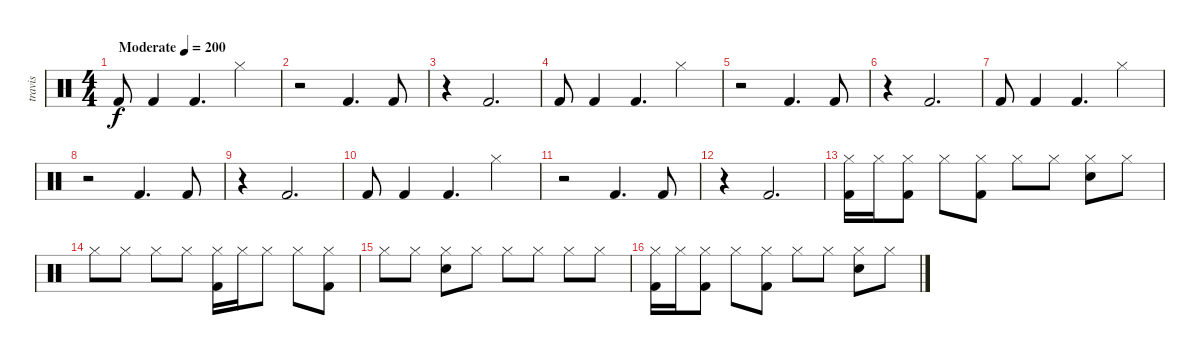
\track ("travis" "travis") {instrument percussion}
\staff {score}
\articulation defaults
\ts (4 4)
\tempo (200 "Moderate")
\clef neutral
\ks c "Kick (hit) 2".8{dy f} "Kick (hit) 2".4 "Kick (hit) 2".4{d} "Hi-Hat (closed)".4
|
r.2 "Kick (hit) 2".4{d} "Kick (hit) 2".8 |
r.4 "Kick (hit) 2".2{d} |
"Kick (hit) 2".8 "Kick (hit) 2".4 "Kick (hit) 2".4{d} "Hi-Hat (closed)".4 |
r.2 "Kick (hit) 2".4{d} "Kick (hit) 2".8 |
r.4 "Kick (hit) 2".2{d} |
"Kick (hit) 2".8 "Kick (hit) 2".4 "Kick (hit) 2".4{d} "Hi-Hat (closed)".4 |
r.2 "Kick (hit) 2".4{d} "Kick (hit) 2".8 |
r.4 "Kick (hit) 2".2{d} |
"Kick (hit) 2".8 "Kick (hit) 2".4 "Kick (hit) 2".4{d} "Hi-Hat (closed)".4 |
r.2 "Kick (hit) 2".4{d} "Kick (hit) 2".8 |
r.4 "Kick (hit) 2".2{d} |
("Hi-Hat (closed)" "Kick (hit) 2").16 "Hi-Hat (closed)".16 ("Hi-Hat (closed)" "Kick (hit) 2").8 "Hi-Hat (closed)".8 ("Hi-Hat (closed)" "Kick (hit) 2").8 "Hi-Hat (closed)".8 "Hi-Hat (closed)".8 ("Hi-Hat (closed)" "Electric Snare (hit)").8 "Hi-Hat (closed)".8 |
"Hi-Hat (closed)".8 "Hi-Hat (closed)".8 "Hi-Hat (closed)".8 "Hi-Hat (closed)".8 ("Hi-Hat (closed)" "Kick (hit) 2").16 "Hi-Hat (closed)".16 "Hi-Hat (closed)".8 "Hi-Hat (closed)".8 ("Hi-Hat (closed)" "Kick (hit) 2").8 |
"Hi-Hat (closed)".8 "Hi-Hat (closed)".8 ("Hi-Hat (closed)" "Electric Snare (hit)").8 "Hi-Hat (closed)".8 "Hi-Hat (closed)".8 "Hi-Hat (closed)".8 "Hi-Hat (closed)".8 "Hi-Hat (closed)".8 |
("Hi-Hat (closed)" "Kick (hit) 2").16 "Hi-Hat (closed)".16 ("Hi-Hat (closed)" "Kick (hit) 2").8 "Hi-Hat (closed)".8 ("Hi-Hat (closed)" "Kick (hit) 2").8 "Hi-Hat (closed)".8 "Hi-Hat (closed)".8 ("Hi-Hat (closed)" "Electric Snare (hit)").8 "Hi-Hat (closed)".8
